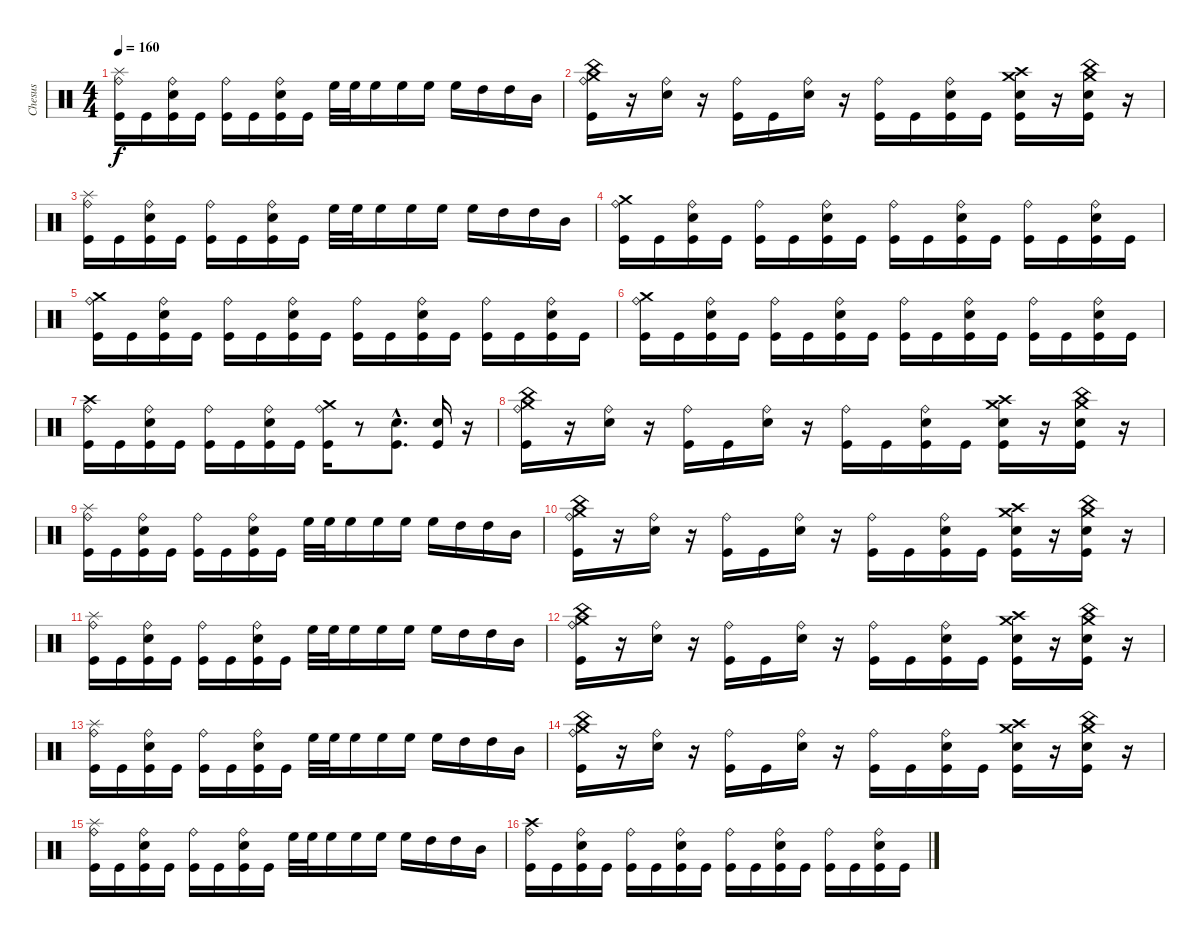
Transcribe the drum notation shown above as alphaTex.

\track ("Chesus" "Chesus") {instrument percussion}
\staff {score}
\articulation defaults
\ts (4 4)
\tempo 160
\clef neutral
\ks c
("Splash (hit)" "Ride (bell)" "Kick (hit)").16{dy f} "Kick (hit)".16 ("Ride (bell)" "Snare (hit) 2" "Kick (hit)").16 "Kick (hit)".16 ("Ride (bell)" "Kick (hit)").16 "Kick (hit)".16 ("Ride (bell)" "Snare (hit) 2" "Kick (hit)").16 "Kick (hit)".16 "High Floor Tom (hit)".32 "High Floor Tom (hit)".32 "High Floor Tom (hit)".16 "High Floor Tom (hit)".16 "High Floor Tom (hit)".16 "High Floor Tom (hit)".16 "High Tom (hit)".16 "High Tom (hit)".16 "Mid Tom (hit)".16 |
("Crash medium (hit)" "China (hit)" "Ride (bell)" "Kick (hit)").16 r.16 ("Ride (bell)" "Snare (hit) 2").16 r.16 ("Ride (bell)" "Kick (hit)").16 "Kick (hit)".16 ("Ride (bell)" "Snare (hit) 2").16 r.16 ("Ride (bell)" "Kick (hit)").16 "Kick (hit)".16 ("Ride (bell)" "Snare (hit) 2" "Kick (hit)").16 "Kick (hit)".16 ("Crash medium (hit)" "Crash high (hit)" "Snare (hit) 2" "Kick (hit)").16 r.16 ("Crash medium (hit)" "China (hit)" "Snare (hit) 2" "Kick (hit)").16 r.16 |
("Splash (hit)" "Ride (bell)" "Kick (hit)").16 "Kick (hit)".16 ("Ride (bell)" "Snare (hit) 2" "Kick (hit)").16 "Kick (hit)".16 ("Ride (bell)" "Kick (hit)").16 "Kick (hit)".16 ("Ride (bell)" "Snare (hit) 2" "Kick (hit)").16 "Kick (hit)".16 "High Floor Tom (hit)".32 "High Floor Tom (hit)".32 "High Floor Tom (hit)".16 "High Floor Tom (hit)".16 "High Floor Tom (hit)".16 "High Floor Tom (hit)".16 "High Tom (hit)".16 "High Tom (hit)".16 "Mid Tom (hit)".16 |
("Crash medium (hit)" "Ride (bell)" "Kick (hit)").16 "Kick (hit)".16 ("Ride (bell)" "Snare (hit) 2" "Kick (hit)").16 "Kick (hit)".16 ("Ride (bell)" "Kick (hit)").16 "Kick (hit)".16 ("Ride (bell)" "Snare (hit) 2" "Kick (hit)").16 "Kick (hit)".16 ("Ride (bell)" "Kick (hit)").16 "Kick (hit)".16 ("Ride (bell)" "Snare (hit) 2" "Kick (hit)").16 "Kick (hit)".16 ("Ride (bell)" "Kick (hit)").16 "Kick (hit)".16 ("Ride (bell)" "Snare (hit) 2" "Kick (hit)").16 "Kick (hit)".16 |
("Crash medium (hit)" "Ride (bell)" "Kick (hit)").16 "Kick (hit)".16 ("Ride (bell)" "Snare (hit) 2" "Kick (hit)").16 "Kick (hit)".16 ("Ride (bell)" "Kick (hit)").16 "Kick (hit)".16 ("Ride (bell)" "Snare (hit) 2" "Kick (hit)").16 "Kick (hit)".16 ("Ride (bell)" "Kick (hit)").16 "Kick (hit)".16 ("Ride (bell)" "Snare (hit) 2" "Kick (hit)").16 "Kick (hit)".16 ("Ride (bell)" "Kick (hit)").16 "Kick (hit)".16 ("Ride (bell)" "Snare (hit) 2" "Kick (hit)").16 "Kick (hit)".16 |
("Crash medium (hit)" "Ride (bell)" "Kick (hit)").16 "Kick (hit)".16 ("Ride (bell)" "Snare (hit) 2" "Kick (hit)").16 "Kick (hit)".16 ("Ride (bell)" "Kick (hit)").16 "Kick (hit)".16 ("Ride (bell)" "Snare (hit) 2" "Kick (hit)").16 "Kick (hit)".16 ("Ride (bell)" "Kick (hit)").16 "Kick (hit)".16 ("Ride (bell)" "Snare (hit) 2" "Kick (hit)").16 "Kick (hit)".16 ("Ride (bell)" "Kick (hit)").16 "Kick (hit)".16 ("Ride (bell)" "Snare (hit) 2" "Kick (hit)").16 "Kick (hit)".16 |
("Crash high (hit)" "Ride (bell)" "Kick (hit)").16 "Kick (hit)".16 ("Ride (bell)" "Snare (hit) 2" "Kick (hit)").16 "Kick (hit)".16 ("Ride (bell)" "Kick (hit)").16 "Kick (hit)".16 ("Ride (bell)" "Snare (hit) 2" "Kick (hit)").16 "Kick (hit)".16 ("Crash medium (hit)" "Ride (bell)" "Kick (hit)").16 r.8 ("Snare (hit) 2"{hac} "Kick (hit)"{hac}).8{d} ("Snare (hit) 2" "Kick (hit)").16 r.16 |
("Crash medium (hit)" "China (hit)" "Ride (bell)" "Kick (hit)").16 r.16 ("Ride (bell)" "Snare (hit) 2").16 r.16 ("Ride (bell)" "Kick (hit)").16 "Kick (hit)".16 ("Ride (bell)" "Snare (hit) 2").16 r.16 ("Ride (bell)" "Kick (hit)").16 "Kick (hit)".16 ("Ride (bell)" "Snare (hit) 2" "Kick (hit)").16 "Kick (hit)".16 ("Crash medium (hit)" "Crash high (hit)" "Snare (hit) 2" "Kick (hit)").16 r.16 ("Crash medium (hit)" "China (hit)" "Snare (hit) 2" "Kick (hit)").16 r.16 |
("Splash (hit)" "Ride (bell)" "Kick (hit)").16 "Kick (hit)".16 ("Ride (bell)" "Snare (hit) 2" "Kick (hit)").16 "Kick (hit)".16 ("Ride (bell)" "Kick (hit)").16 "Kick (hit)".16 ("Ride (bell)" "Snare (hit) 2" "Kick (hit)").16 "Kick (hit)".16 "High Floor Tom (hit)".32 "High Floor Tom (hit)".32 "High Floor Tom (hit)".16 "High Floor Tom (hit)".16 "High Floor Tom (hit)".16 "High Floor Tom (hit)".16 "High Tom (hit)".16 "High Tom (hit)".16 "Mid Tom (hit)".16 |
("Crash medium (hit)" "China (hit)" "Ride (bell)" "Kick (hit)").16 r.16 ("Ride (bell)" "Snare (hit) 2").16 r.16 ("Ride (bell)" "Kick (hit)").16 "Kick (hit)".16 ("Ride (bell)" "Snare (hit) 2").16 r.16 ("Ride (bell)" "Kick (hit)").16 "Kick (hit)".16 ("Ride (bell)" "Snare (hit) 2" "Kick (hit)").16 "Kick (hit)".16 ("Crash medium (hit)" "Crash high (hit)" "Snare (hit) 2" "Kick (hit)").16 r.16 ("Crash medium (hit)" "China (hit)" "Snare (hit) 2" "Kick (hit)").16 r.16 |
("Splash (hit)" "Ride (bell)" "Kick (hit)").16 "Kick (hit)".16 ("Ride (bell)" "Snare (hit) 2" "Kick (hit)").16 "Kick (hit)".16 ("Ride (bell)" "Kick (hit)").16 "Kick (hit)".16 ("Ride (bell)" "Snare (hit) 2" "Kick (hit)").16 "Kick (hit)".16 "High Floor Tom (hit)".32 "High Floor Tom (hit)".32 "High Floor Tom (hit)".16 "High Floor Tom (hit)".16 "High Floor Tom (hit)".16 "High Floor Tom (hit)".16 "High Tom (hit)".16 "High Tom (hit)".16 "Mid Tom (hit)".16 |
("Crash medium (hit)" "China (hit)" "Ride (bell)" "Kick (hit)").16 r.16 ("Ride (bell)" "Snare (hit) 2").16 r.16 ("Ride (bell)" "Kick (hit)").16 "Kick (hit)".16 ("Ride (bell)" "Snare (hit) 2").16 r.16 ("Ride (bell)" "Kick (hit)").16 "Kick (hit)".16 ("Ride (bell)" "Snare (hit) 2" "Kick (hit)").16 "Kick (hit)".16 ("Crash medium (hit)" "Crash high (hit)" "Snare (hit) 2" "Kick (hit)").16 r.16 ("Crash medium (hit)" "China (hit)" "Snare (hit) 2" "Kick (hit)").16 r.16 |
("Splash (hit)" "Ride (bell)" "Kick (hit)").16 "Kick (hit)".16 ("Ride (bell)" "Snare (hit) 2" "Kick (hit)").16 "Kick (hit)".16 ("Ride (bell)" "Kick (hit)").16 "Kick (hit)".16 ("Ride (bell)" "Snare (hit) 2" "Kick (hit)").16 "Kick (hit)".16 "High Floor Tom (hit)".32 "High Floor Tom (hit)".32 "High Floor Tom (hit)".16 "High Floor Tom (hit)".16 "High Floor Tom (hit)".16 "High Floor Tom (hit)".16 "High Tom (hit)".16 "High Tom (hit)".16 "Mid Tom (hit)".16 |
("Crash medium (hit)" "China (hit)" "Ride (bell)" "Kick (hit)").16 r.16 ("Ride (bell)" "Snare (hit) 2").16 r.16 ("Ride (bell)" "Kick (hit)").16 "Kick (hit)".16 ("Ride (bell)" "Snare (hit) 2").16 r.16 ("Ride (bell)" "Kick (hit)").16 "Kick (hit)".16 ("Ride (bell)" "Snare (hit) 2" "Kick (hit)").16 "Kick (hit)".16 ("Crash medium (hit)" "Crash high (hit)" "Snare (hit) 2" "Kick (hit)").16 r.16 ("Crash medium (hit)" "China (hit)" "Snare (hit) 2" "Kick (hit)").16 r.16 |
("Splash (hit)" "Ride (bell)" "Kick (hit)").16 "Kick (hit)".16 ("Ride (bell)" "Snare (hit) 2" "Kick (hit)").16 "Kick (hit)".16 ("Ride (bell)" "Kick (hit)").16 "Kick (hit)".16 ("Ride (bell)" "Snare (hit) 2" "Kick (hit)").16 "Kick (hit)".16 "High Floor Tom (hit)".32 "High Floor Tom (hit)".32 "High Floor Tom (hit)".16 "High Floor Tom (hit)".16 "High Floor Tom (hit)".16 "High Floor Tom (hit)".16 "High Tom (hit)".16 "High Tom (hit)".16 "Mid Tom (hit)".16 |
("Crash high (hit)" "Ride (bell)" "Kick (hit)").16 "Kick (hit)".16 ("Ride (bell)" "Snare (hit) 2" "Kick (hit)").16 "Kick (hit)".16 ("Ride (bell)" "Kick (hit)").16 "Kick (hit)".16 ("Ride (bell)" "Snare (hit) 2" "Kick (hit)").16 "Kick (hit)".16 ("Ride (bell)" "Kick (hit)").16 "Kick (hit)".16 ("Ride (bell)" "Snare (hit) 2" "Kick (hit)").16 "Kick (hit)".16 ("Ride (bell)" "Kick (hit)").16 "Kick (hit)".16 ("Ride (bell)" "Snare (hit) 2" "Kick (hit)").16 "Kick (hit)".16
